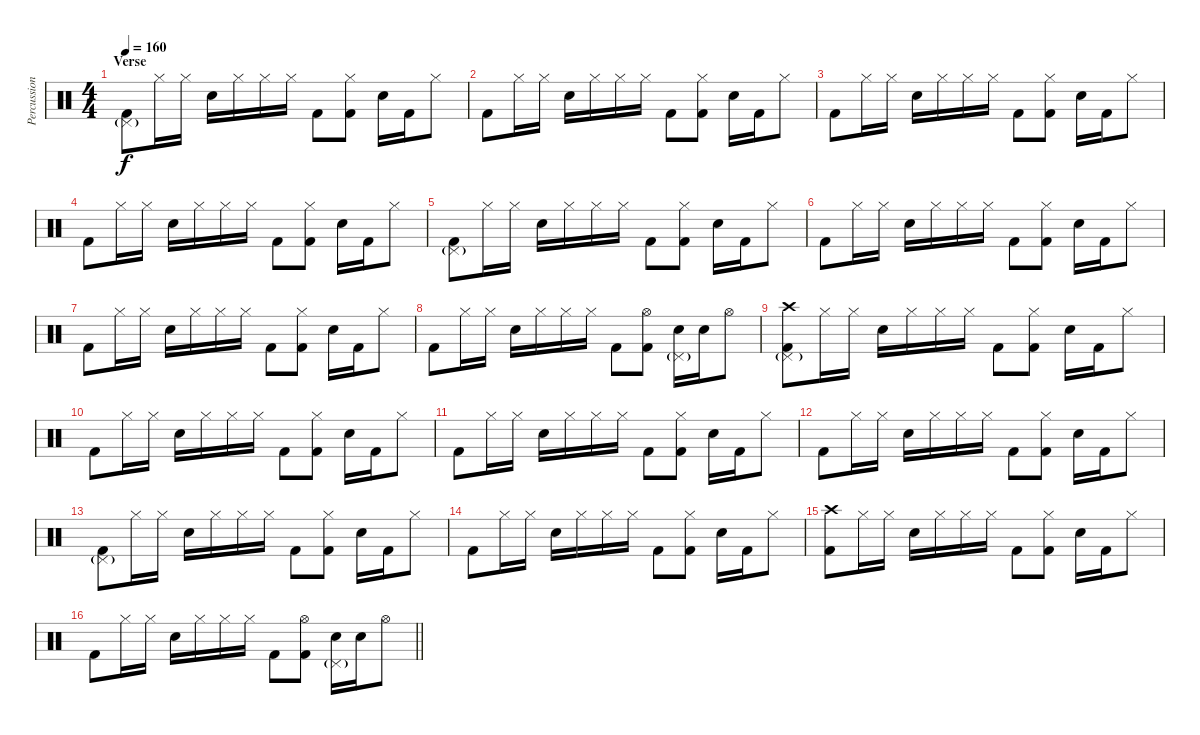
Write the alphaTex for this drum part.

\track ("Percussion" "Percussion") {instrument percussion}
\staff {score}
\articulation defaults
\ts (4 4)
\section ("" "Verse")
\tempo 160
\clef neutral
\ks c
("Pedal Hi-Hat (hit)"{g} "Kick (hit) 2").8{dy f} "Hi-Hat (closed)".16 "Hi-Hat (closed)".16 "Electric Snare (hit)".16 "Hi-Hat (closed)".16 "Hi-Hat (closed)".16 "Hi-Hat (closed)".16 "Kick (hit) 2".8 ("Hi-Hat (closed)" "Kick (hit) 2").8 "Electric Snare (hit)".16 "Kick (hit) 2".16 "Hi-Hat (closed)".8 |
"Kick (hit) 2".8 "Hi-Hat (closed)".16 "Hi-Hat (closed)".16 "Electric Snare (hit)".16 "Hi-Hat (closed)".16 "Hi-Hat (closed)".16 "Hi-Hat (closed)".16 "Kick (hit) 2".8 ("Hi-Hat (closed)" "Kick (hit) 2").8 "Electric Snare (hit)".16 "Kick (hit) 2".16 "Hi-Hat (closed)".8 |
"Kick (hit) 2".8 "Hi-Hat (closed)".16 "Hi-Hat (closed)".16 "Electric Snare (hit)".16 "Hi-Hat (closed)".16 "Hi-Hat (closed)".16 "Hi-Hat (closed)".16 "Kick (hit) 2".8 ("Hi-Hat (closed)" "Kick (hit) 2").8 "Electric Snare (hit)".16 "Kick (hit) 2".16 "Hi-Hat (closed)".8 |
"Kick (hit) 2".8 "Hi-Hat (closed)".16 "Hi-Hat (closed)".16 "Electric Snare (hit)".16 "Hi-Hat (closed)".16 "Hi-Hat (closed)".16 "Hi-Hat (closed)".16 "Kick (hit) 2".8 ("Hi-Hat (closed)" "Kick (hit) 2").8 "Electric Snare (hit)".16 "Kick (hit) 2".16 "Hi-Hat (closed)".8 |
("Pedal Hi-Hat (hit)"{g} "Kick (hit) 2").8 "Hi-Hat (closed)".16 "Hi-Hat (closed)".16 "Electric Snare (hit)".16 "Hi-Hat (closed)".16 "Hi-Hat (closed)".16 "Hi-Hat (closed)".16 "Kick (hit) 2".8 ("Hi-Hat (closed)" "Kick (hit) 2").8 "Electric Snare (hit)".16 "Kick (hit) 2".16 "Hi-Hat (closed)".8 |
"Kick (hit) 2".8 "Hi-Hat (closed)".16 "Hi-Hat (closed)".16 "Electric Snare (hit)".16 "Hi-Hat (closed)".16 "Hi-Hat (closed)".16 "Hi-Hat (closed)".16 "Kick (hit) 2".8 ("Hi-Hat (closed)" "Kick (hit) 2").8 "Electric Snare (hit)".16 "Kick (hit) 2".16 "Hi-Hat (closed)".8 |
"Kick (hit) 2".8 "Hi-Hat (closed)".16 "Hi-Hat (closed)".16 "Electric Snare (hit)".16 "Hi-Hat (closed)".16 "Hi-Hat (closed)".16 "Hi-Hat (closed)".16 "Kick (hit) 2".8 ("Hi-Hat (closed)" "Kick (hit) 2").8 "Electric Snare (hit)".16 "Kick (hit) 2".16 "Hi-Hat (closed)".8 |
"Kick (hit) 2".8 "Hi-Hat (closed)".16 "Hi-Hat (closed)".16 "Electric Snare (hit)".16 "Hi-Hat (closed)".16 "Hi-Hat (closed)".16 "Hi-Hat (closed)".16 "Kick (hit) 2".8 ("Hi-Hat (open)" "Kick (hit) 2").8 ("Pedal Hi-Hat (hit)"{g} "Electric Snare (hit)").16 "Electric Snare (hit)".16 "Hi-Hat (open)".8 |
("Crash high (hit)" "Pedal Hi-Hat (hit)"{g} "Kick (hit) 2").8 "Hi-Hat (closed)".16 "Hi-Hat (closed)".16 "Electric Snare (hit)".16 "Hi-Hat (closed)".16 "Hi-Hat (closed)".16 "Hi-Hat (closed)".16 "Kick (hit) 2".8 ("Hi-Hat (closed)" "Kick (hit) 2").8 "Electric Snare (hit)".16 "Kick (hit) 2".16 "Hi-Hat (closed)".8 |
"Kick (hit) 2".8 "Hi-Hat (closed)".16 "Hi-Hat (closed)".16 "Electric Snare (hit)".16 "Hi-Hat (closed)".16 "Hi-Hat (closed)".16 "Hi-Hat (closed)".16 "Kick (hit) 2".8 ("Hi-Hat (closed)" "Kick (hit) 2").8 "Electric Snare (hit)".16 "Kick (hit) 2".16 "Hi-Hat (closed)".8 |
"Kick (hit) 2".8 "Hi-Hat (closed)".16 "Hi-Hat (closed)".16 "Electric Snare (hit)".16 "Hi-Hat (closed)".16 "Hi-Hat (closed)".16 "Hi-Hat (closed)".16 "Kick (hit) 2".8 ("Hi-Hat (closed)" "Kick (hit) 2").8 "Electric Snare (hit)".16 "Kick (hit) 2".16 "Hi-Hat (closed)".8 |
"Kick (hit) 2".8 "Hi-Hat (closed)".16 "Hi-Hat (closed)".16 "Electric Snare (hit)".16 "Hi-Hat (closed)".16 "Hi-Hat (closed)".16 "Hi-Hat (closed)".16 "Kick (hit) 2".8 ("Hi-Hat (closed)" "Kick (hit) 2").8 "Electric Snare (hit)".16 "Kick (hit) 2".16 "Hi-Hat (closed)".8 |
("Pedal Hi-Hat (hit)"{g} "Kick (hit) 2").8 "Hi-Hat (closed)".16 "Hi-Hat (closed)".16 "Electric Snare (hit)".16 "Hi-Hat (closed)".16 "Hi-Hat (closed)".16 "Hi-Hat (closed)".16 "Kick (hit) 2".8 ("Hi-Hat (closed)" "Kick (hit) 2").8 "Electric Snare (hit)".16 "Kick (hit) 2".16 "Hi-Hat (closed)".8 |
"Kick (hit) 2".8 "Hi-Hat (closed)".16 "Hi-Hat (closed)".16 "Electric Snare (hit)".16 "Hi-Hat (closed)".16 "Hi-Hat (closed)".16 "Hi-Hat (closed)".16 "Kick (hit) 2".8 ("Hi-Hat (closed)" "Kick (hit) 2").8 "Electric Snare (hit)".16 "Kick (hit) 2".16 "Hi-Hat (closed)".8 |
("Crash high (hit)" "Kick (hit) 2").8 "Hi-Hat (closed)".16 "Hi-Hat (closed)".16 "Electric Snare (hit)".16 "Hi-Hat (closed)".16 "Hi-Hat (closed)".16 "Hi-Hat (closed)".16 "Kick (hit) 2".8 ("Hi-Hat (closed)" "Kick (hit) 2").8 "Electric Snare (hit)".16 "Kick (hit) 2".16 "Hi-Hat (closed)".8 |
\barLineRight lightlight "Kick (hit) 2".8 "Hi-Hat (closed)".16 "Hi-Hat (closed)".16 "Electric Snare (hit)".16 "Hi-Hat (closed)".16 "Hi-Hat (closed)".16 "Hi-Hat (closed)".16 "Kick (hit) 2".8
("Hi-Hat (open)" "Kick (hit) 2").8 ("Pedal Hi-Hat (hit)"{g} "Electric Snare (hit)").16 "Electric Snare (hit)".16 "Hi-Hat (open)".8
